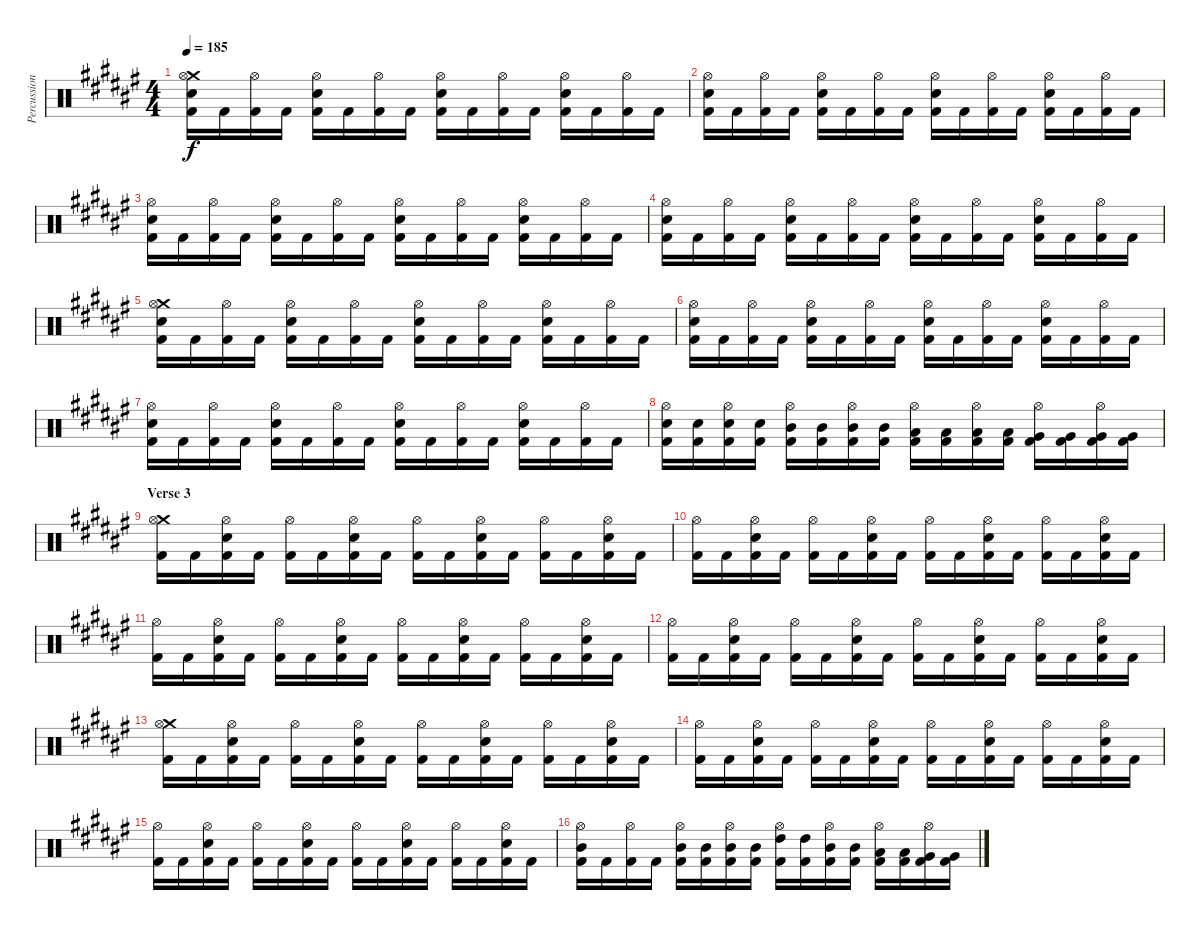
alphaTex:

\track ("Percussion" "Percussion") {instrument percussion}
\staff {score}
\articulation defaults
\ts (4 4)
\tempo 185
\clef neutral
\ks d#minor
("Crash medium (hit)" "Hi-Hat (open)" "Electric Snare (hit)" "Kick (hit) 2").16{dy f} "Kick (hit) 2".16 ("Hi-Hat (open)" "Kick (hit) 2").16 "Kick (hit) 2".16 ("Hi-Hat (open)" "Electric Snare (hit)" "Kick (hit) 2").16 "Kick (hit) 2".16 ("Hi-Hat (open)" "Kick (hit) 2").16 "Kick (hit) 2".16 ("Hi-Hat (open)" "Electric Snare (hit)" "Kick (hit) 2").16 "Kick (hit) 2".16 ("Hi-Hat (open)" "Kick (hit) 2").16 "Kick (hit) 2".16 ("Hi-Hat (open)" "Electric Snare (hit)" "Kick (hit) 2").16 "Kick (hit) 2".16 ("Hi-Hat (open)" "Kick (hit) 2").16 "Kick (hit) 2".16 |
("Hi-Hat (open)" "Electric Snare (hit)" "Kick (hit) 2").16 "Kick (hit) 2".16 ("Hi-Hat (open)" "Kick (hit) 2").16 "Kick (hit) 2".16 ("Hi-Hat (open)" "Electric Snare (hit)" "Kick (hit) 2").16 "Kick (hit) 2".16 ("Hi-Hat (open)" "Kick (hit) 2").16 "Kick (hit) 2".16 ("Hi-Hat (open)" "Electric Snare (hit)" "Kick (hit) 2").16 "Kick (hit) 2".16 ("Hi-Hat (open)" "Kick (hit) 2").16 "Kick (hit) 2".16 ("Hi-Hat (open)" "Electric Snare (hit)" "Kick (hit) 2").16 "Kick (hit) 2".16 ("Hi-Hat (open)" "Kick (hit) 2").16 "Kick (hit) 2".16 |
("Hi-Hat (open)" "Electric Snare (hit)" "Kick (hit) 2").16 "Kick (hit) 2".16 ("Hi-Hat (open)" "Kick (hit) 2").16 "Kick (hit) 2".16 ("Hi-Hat (open)" "Electric Snare (hit)" "Kick (hit) 2").16 "Kick (hit) 2".16 ("Hi-Hat (open)" "Kick (hit) 2").16 "Kick (hit) 2".16 ("Hi-Hat (open)" "Electric Snare (hit)" "Kick (hit) 2").16 "Kick (hit) 2".16 ("Hi-Hat (open)" "Kick (hit) 2").16 "Kick (hit) 2".16 ("Hi-Hat (open)" "Electric Snare (hit)" "Kick (hit) 2").16 "Kick (hit) 2".16 ("Hi-Hat (open)" "Kick (hit) 2").16 "Kick (hit) 2".16 |
("Hi-Hat (open)" "Electric Snare (hit)" "Kick (hit) 2").16 "Kick (hit) 2".16 ("Hi-Hat (open)" "Kick (hit) 2").16 "Kick (hit) 2".16 ("Hi-Hat (open)" "Electric Snare (hit)" "Kick (hit) 2").16 "Kick (hit) 2".16 ("Hi-Hat (open)" "Kick (hit) 2").16 "Kick (hit) 2".16 ("Hi-Hat (open)" "Electric Snare (hit)" "Kick (hit) 2").16 "Kick (hit) 2".16 ("Hi-Hat (open)" "Kick (hit) 2").16 "Kick (hit) 2".16 ("Hi-Hat (open)" "Electric Snare (hit)" "Kick (hit) 2").16 "Kick (hit) 2".16 ("Hi-Hat (open)" "Kick (hit) 2").16 "Kick (hit) 2".16 |
("Crash medium (hit)" "Hi-Hat (open)" "Electric Snare (hit)" "Kick (hit) 2").16 "Kick (hit) 2".16 ("Hi-Hat (open)" "Kick (hit) 2").16 "Kick (hit) 2".16 ("Hi-Hat (open)" "Electric Snare (hit)" "Kick (hit) 2").16 "Kick (hit) 2".16 ("Hi-Hat (open)" "Kick (hit) 2").16 "Kick (hit) 2".16 ("Hi-Hat (open)" "Electric Snare (hit)" "Kick (hit) 2").16 "Kick (hit) 2".16 ("Hi-Hat (open)" "Kick (hit) 2").16 "Kick (hit) 2".16 ("Hi-Hat (open)" "Electric Snare (hit)" "Kick (hit) 2").16 "Kick (hit) 2".16 ("Hi-Hat (open)" "Kick (hit) 2").16 "Kick (hit) 2".16 |
("Hi-Hat (open)" "Electric Snare (hit)" "Kick (hit) 2").16 "Kick (hit) 2".16 ("Hi-Hat (open)" "Kick (hit) 2").16 "Kick (hit) 2".16 ("Hi-Hat (open)" "Electric Snare (hit)" "Kick (hit) 2").16 "Kick (hit) 2".16 ("Hi-Hat (open)" "Kick (hit) 2").16 "Kick (hit) 2".16 ("Hi-Hat (open)" "Electric Snare (hit)" "Kick (hit) 2").16 "Kick (hit) 2".16 ("Hi-Hat (open)" "Kick (hit) 2").16 "Kick (hit) 2".16 ("Hi-Hat (open)" "Electric Snare (hit)" "Kick (hit) 2").16 "Kick (hit) 2".16 ("Hi-Hat (open)" "Kick (hit) 2").16 "Kick (hit) 2".16 |
("Hi-Hat (open)" "Electric Snare (hit)" "Kick (hit) 2").16 "Kick (hit) 2".16 ("Hi-Hat (open)" "Kick (hit) 2").16 "Kick (hit) 2".16 ("Hi-Hat (open)" "Electric Snare (hit)" "Kick (hit) 2").16 "Kick (hit) 2".16 ("Hi-Hat (open)" "Kick (hit) 2").16 "Kick (hit) 2".16 ("Hi-Hat (open)" "Electric Snare (hit)" "Kick (hit) 2").16 "Kick (hit) 2".16 ("Hi-Hat (open)" "Kick (hit) 2").16 "Kick (hit) 2".16 ("Hi-Hat (open)" "Electric Snare (hit)" "Kick (hit) 2").16 "Kick (hit) 2".16 ("Hi-Hat (open)" "Kick (hit) 2").16 "Kick (hit) 2".16 |
("Hi-Hat (open)" "Electric Snare (hit)" "Kick (hit) 2").16 ("Electric Snare (hit)" "Kick (hit) 2").16 ("Hi-Hat (open)" "Electric Snare (hit)" "Kick (hit) 2").16 ("Electric Snare (hit)" "Kick (hit) 2").16 ("Hi-Hat (open)" "Mid Tom (hit)" "Kick (hit) 2").16 ("Mid Tom (hit)" "Kick (hit) 2").16 ("Hi-Hat (open)" "Mid Tom (hit)" "Kick (hit) 2").16 ("Mid Tom (hit)" "Kick (hit) 2").16 ("Hi-Hat (open)" "Low Tom (hit)" "Kick (hit) 2").16 ("Low Tom (hit)" "Kick (hit) 2").16 ("Hi-Hat (open)" "Low Tom (hit)" "Kick (hit) 2").16 ("Low Tom (hit)" "Kick (hit) 2").16 ("Hi-Hat (open)" "Very Low Tom (hit)" "Kick (hit) 2").16 ("Very Low Tom (hit)" "Kick (hit) 2").16 ("Hi-Hat (open)" "Very Low Tom (hit)" "Kick (hit) 2").16 ("Very Low Tom (hit)" "Kick (hit) 2").16 |
\section ("" "Verse 3")
("Crash medium (hit)" "Hi-Hat (open)" "Kick (hit) 2").16 "Kick (hit) 2".16 ("Hi-Hat (open)" "Electric Snare (hit)" "Kick (hit) 2").16 "Kick (hit) 2".16 ("Hi-Hat (open)" "Kick (hit) 2").16 "Kick (hit) 2".16 ("Hi-Hat (open)" "Electric Snare (hit)" "Kick (hit) 2").16 "Kick (hit) 2".16 ("Hi-Hat (open)" "Kick (hit) 2").16 "Kick (hit) 2".16 ("Hi-Hat (open)" "Electric Snare (hit)" "Kick (hit) 2").16 "Kick (hit) 2".16 ("Hi-Hat (open)" "Kick (hit) 2").16 "Kick (hit) 2".16 ("Hi-Hat (open)" "Electric Snare (hit)" "Kick (hit) 2").16 "Kick (hit) 2".16 |
("Hi-Hat (open)" "Kick (hit) 2").16 "Kick (hit) 2".16 ("Hi-Hat (open)" "Electric Snare (hit)" "Kick (hit) 2").16 "Kick (hit) 2".16 ("Hi-Hat (open)" "Kick (hit) 2").16 "Kick (hit) 2".16 ("Hi-Hat (open)" "Electric Snare (hit)" "Kick (hit) 2").16 "Kick (hit) 2".16 ("Hi-Hat (open)" "Kick (hit) 2").16 "Kick (hit) 2".16 ("Hi-Hat (open)" "Electric Snare (hit)" "Kick (hit) 2").16 "Kick (hit) 2".16 ("Hi-Hat (open)" "Kick (hit) 2").16 "Kick (hit) 2".16 ("Hi-Hat (open)" "Electric Snare (hit)" "Kick (hit) 2").16 "Kick (hit) 2".16 |
("Hi-Hat (open)" "Kick (hit) 2").16 "Kick (hit) 2".16 ("Hi-Hat (open)" "Electric Snare (hit)" "Kick (hit) 2").16 "Kick (hit) 2".16 ("Hi-Hat (open)" "Kick (hit) 2").16 "Kick (hit) 2".16 ("Hi-Hat (open)" "Electric Snare (hit)" "Kick (hit) 2").16 "Kick (hit) 2".16 ("Hi-Hat (open)" "Kick (hit) 2").16 "Kick (hit) 2".16 ("Hi-Hat (open)" "Electric Snare (hit)" "Kick (hit) 2").16 "Kick (hit) 2".16 ("Hi-Hat (open)" "Kick (hit) 2").16 "Kick (hit) 2".16 ("Hi-Hat (open)" "Electric Snare (hit)" "Kick (hit) 2").16 "Kick (hit) 2".16 |
("Hi-Hat (open)" "Kick (hit) 2").16 "Kick (hit) 2".16 ("Hi-Hat (open)" "Electric Snare (hit)" "Kick (hit) 2").16 "Kick (hit) 2".16 ("Hi-Hat (open)" "Kick (hit) 2").16 "Kick (hit) 2".16 ("Hi-Hat (open)" "Electric Snare (hit)" "Kick (hit) 2").16 "Kick (hit) 2".16 ("Hi-Hat (open)" "Kick (hit) 2").16 "Kick (hit) 2".16 ("Hi-Hat (open)" "Electric Snare (hit)" "Kick (hit) 2").16 "Kick (hit) 2".16 ("Hi-Hat (open)" "Kick (hit) 2").16 "Kick (hit) 2".16 ("Hi-Hat (open)" "Electric Snare (hit)" "Kick (hit) 2").16 "Kick (hit) 2".16 |
("Crash medium (hit)" "Hi-Hat (open)" "Kick (hit) 2").16 "Kick (hit) 2".16 ("Hi-Hat (open)" "Electric Snare (hit)" "Kick (hit) 2").16 "Kick (hit) 2".16 ("Hi-Hat (open)" "Kick (hit) 2").16 "Kick (hit) 2".16 ("Hi-Hat (open)" "Electric Snare (hit)" "Kick (hit) 2").16 "Kick (hit) 2".16 ("Hi-Hat (open)" "Kick (hit) 2").16 "Kick (hit) 2".16 ("Hi-Hat (open)" "Electric Snare (hit)" "Kick (hit) 2").16 "Kick (hit) 2".16 ("Hi-Hat (open)" "Kick (hit) 2").16 "Kick (hit) 2".16 ("Hi-Hat (open)" "Electric Snare (hit)" "Kick (hit) 2").16 "Kick (hit) 2".16 |
("Hi-Hat (open)" "Kick (hit) 2").16 "Kick (hit) 2".16 ("Hi-Hat (open)" "Electric Snare (hit)" "Kick (hit) 2").16 "Kick (hit) 2".16 ("Hi-Hat (open)" "Kick (hit) 2").16 "Kick (hit) 2".16 ("Hi-Hat (open)" "Electric Snare (hit)" "Kick (hit) 2").16 "Kick (hit) 2".16 ("Hi-Hat (open)" "Kick (hit) 2").16 "Kick (hit) 2".16 ("Hi-Hat (open)" "Electric Snare (hit)" "Kick (hit) 2").16 "Kick (hit) 2".16 ("Hi-Hat (open)" "Kick (hit) 2").16 "Kick (hit) 2".16 ("Hi-Hat (open)" "Electric Snare (hit)" "Kick (hit) 2").16 "Kick (hit) 2".16 |
("Hi-Hat (open)" "Kick (hit) 2").16 "Kick (hit) 2".16 ("Hi-Hat (open)" "Electric Snare (hit)" "Kick (hit) 2").16 "Kick (hit) 2".16 ("Hi-Hat (open)" "Kick (hit) 2").16 "Kick (hit) 2".16 ("Hi-Hat (open)" "Electric Snare (hit)" "Kick (hit) 2").16 "Kick (hit) 2".16 ("Hi-Hat (open)" "Kick (hit) 2").16 "Kick (hit) 2".16 ("Hi-Hat (open)" "Electric Snare (hit)" "Kick (hit) 2").16 "Kick (hit) 2".16 ("Hi-Hat (open)" "Kick (hit) 2").16 "Kick (hit) 2".16 ("Hi-Hat (open)" "Electric Snare (hit)" "Kick (hit) 2").16 "Kick (hit) 2".16 |
("Hi-Hat (open)" "Mid Tom (hit)" "Kick (hit) 2").16 "Kick (hit) 2".16 ("Hi-Hat (open)" "Kick (hit) 2").16 "Kick (hit) 2".16 ("Hi-Hat (open)" "Mid Tom (hit)" "Kick (hit) 2").16 ("Mid Tom (hit)" "Kick (hit) 2").16 ("Hi-Hat (open)" "Mid Tom (hit)" "Kick (hit) 2").16 ("Mid Tom (hit)" "Kick (hit) 2").16 ("Hi-Hat (open)" "High Tom (hit)" "Kick (hit) 2").16 ("High Tom (hit)" "Kick (hit) 2").16 ("Hi-Hat (open)" "Mid Tom (hit)" "Kick (hit) 2").16 ("Mid Tom (hit)" "Kick (hit) 2").16 ("Hi-Hat (open)" "Low Tom (hit)" "Kick (hit) 2").16 ("Low Tom (hit)" "Kick (hit) 2").16 ("Hi-Hat (open)" "Very Low Tom (hit)" "Kick (hit) 2").16 ("Very Low Tom (hit)" "Kick (hit) 2").16
